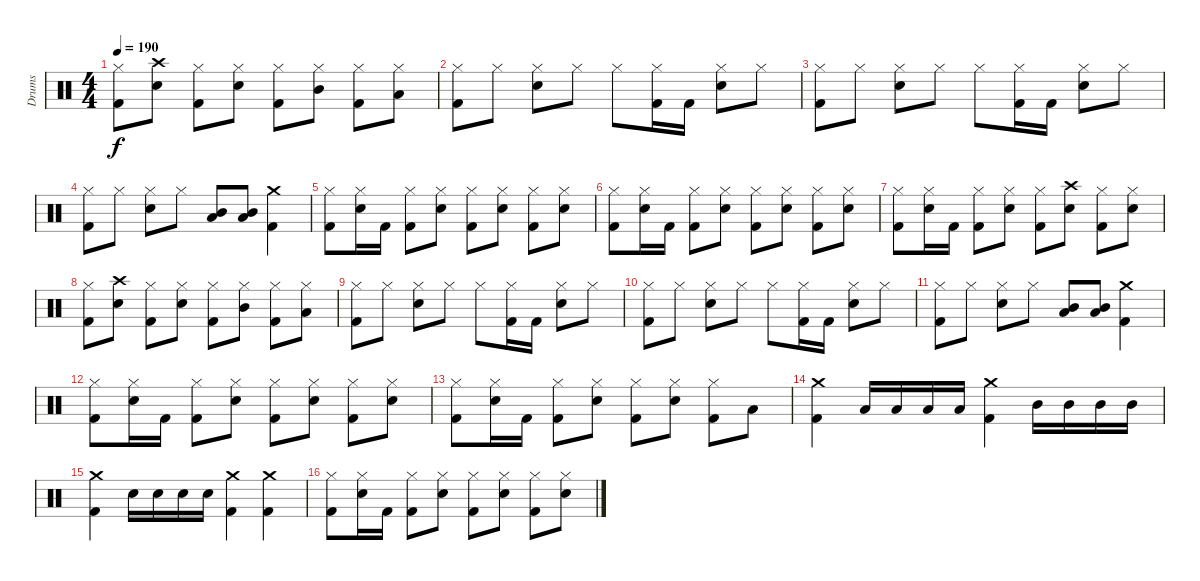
\track ("Drums" "Drums") {instrument percussion}
\staff {score}
\articulation defaults
\ts (4 4)
\tempo 190
\clef neutral
\ks c
("Kick (hit) 2" "Hi-Hat (closed)").8{dy f} ("Snare (hit) 2" "Crash high (hit)").8 ("Kick (hit) 2" "Hi-Hat (closed)").8 ("Snare (hit) 2" "Hi-Hat (closed)").8 ("Kick (hit) 2" "Hi-Hat (closed)").8 ("Hi-Hat (closed)" "Mid Tom (hit)").8 ("Kick (hit) 2" "Hi-Hat (closed)").8 ("Hi-Hat (closed)" "Low Tom (hit)").8 |
("Kick (hit) 2" "Hi-Hat (closed)").8 "Hi-Hat (closed)".8 ("Snare (hit) 2" "Hi-Hat (closed)").8 "Hi-Hat (closed)".8 "Hi-Hat (closed)".8 ("Kick (hit) 2" "Hi-Hat (closed)").16 "Kick (hit) 2".16 ("Snare (hit) 2" "Hi-Hat (closed)").8 "Hi-Hat (closed)".8 |
("Kick (hit) 2" "Hi-Hat (closed)").8 "Hi-Hat (closed)".8 ("Snare (hit) 2" "Hi-Hat (closed)").8 "Hi-Hat (closed)".8 "Hi-Hat (closed)".8 ("Kick (hit) 2" "Hi-Hat (closed)").16 "Kick (hit) 2".16 ("Snare (hit) 2" "Hi-Hat (closed)").8 "Hi-Hat (closed)".8 |
("Kick (hit) 2" "Hi-Hat (closed)").8 "Hi-Hat (closed)".8 ("Snare (hit) 2" "Hi-Hat (closed)").8 "Hi-Hat (closed)".8 ("Mid Tom (hit)" "Low Tom (hit)").8{bd 240} ("Mid Tom (hit)" "Low Tom (hit)").8{bu 240} ("Crash medium (hit)" "Kick (hit) 2").4 |
("Kick (hit) 2" "Hi-Hat (closed)").8 ("Snare (hit) 2" "Hi-Hat (closed)").16 "Kick (hit) 2".16 ("Kick (hit) 2" "Hi-Hat (closed)").8 ("Snare (hit) 2" "Hi-Hat (closed)").8 ("Kick (hit) 2" "Hi-Hat (closed)").8 ("Snare (hit) 2" "Hi-Hat (closed)").8 ("Kick (hit) 2" "Hi-Hat (closed)").8 ("Snare (hit) 2" "Hi-Hat (closed)").8 |
("Kick (hit) 2" "Hi-Hat (closed)").8 ("Snare (hit) 2" "Hi-Hat (closed)").16 "Kick (hit) 2".16 ("Kick (hit) 2" "Hi-Hat (closed)").8 ("Snare (hit) 2" "Hi-Hat (closed)").8 ("Kick (hit) 2" "Hi-Hat (closed)").8 ("Snare (hit) 2" "Hi-Hat (closed)").8 ("Kick (hit) 2" "Hi-Hat (closed)").8 ("Snare (hit) 2" "Hi-Hat (closed)").8 |
("Kick (hit) 2" "Hi-Hat (closed)").8 ("Snare (hit) 2" "Hi-Hat (closed)").16 "Kick (hit) 2".16 ("Kick (hit) 2" "Hi-Hat (closed)").8 ("Snare (hit) 2" "Hi-Hat (closed)").8 ("Kick (hit) 2" "Hi-Hat (closed)").8 ("Snare (hit) 2" "Crash high (hit)").8 ("Kick (hit) 2" "Hi-Hat (closed)").8 ("Snare (hit) 2" "Hi-Hat (closed)").8 |
("Kick (hit) 2" "Hi-Hat (closed)").8 ("Snare (hit) 2" "Crash high (hit)").8 ("Kick (hit) 2" "Hi-Hat (closed)").8 ("Snare (hit) 2" "Hi-Hat (closed)").8 ("Kick (hit) 2" "Hi-Hat (closed)").8 ("Hi-Hat (closed)" "Mid Tom (hit)").8 ("Kick (hit) 2" "Hi-Hat (closed)").8 ("Hi-Hat (closed)" "Low Tom (hit)").8 |
("Kick (hit) 2" "Hi-Hat (closed)").8 "Hi-Hat (closed)".8 ("Snare (hit) 2" "Hi-Hat (closed)").8 "Hi-Hat (closed)".8 "Hi-Hat (closed)".8 ("Kick (hit) 2" "Hi-Hat (closed)").16 "Kick (hit) 2".16 ("Snare (hit) 2" "Hi-Hat (closed)").8 "Hi-Hat (closed)".8 |
("Kick (hit) 2" "Hi-Hat (closed)").8 "Hi-Hat (closed)".8 ("Snare (hit) 2" "Hi-Hat (closed)").8 "Hi-Hat (closed)".8 "Hi-Hat (closed)".8 ("Kick (hit) 2" "Hi-Hat (closed)").16 "Kick (hit) 2".16 ("Snare (hit) 2" "Hi-Hat (closed)").8 "Hi-Hat (closed)".8 |
("Kick (hit) 2" "Hi-Hat (closed)").8 "Hi-Hat (closed)".8 ("Snare (hit) 2" "Hi-Hat (closed)").8 "Hi-Hat (closed)".8 ("Mid Tom (hit)" "Low Tom (hit)").8{bd 240} ("Mid Tom (hit)" "Low Tom (hit)").8{bu 240} ("Crash medium (hit)" "Kick (hit) 2").4 |
("Kick (hit) 2" "Hi-Hat (closed)").8 ("Snare (hit) 2" "Hi-Hat (closed)").16 "Kick (hit) 2".16 ("Kick (hit) 2" "Hi-Hat (closed)").8 ("Snare (hit) 2" "Hi-Hat (closed)").8 ("Kick (hit) 2" "Hi-Hat (closed)").8 ("Snare (hit) 2" "Hi-Hat (closed)").8 ("Kick (hit) 2" "Hi-Hat (closed)").8 ("Snare (hit) 2" "Hi-Hat (closed)").8 |
("Kick (hit) 2" "Hi-Hat (closed)").8 ("Snare (hit) 2" "Hi-Hat (closed)").16 "Kick (hit) 2".16 ("Kick (hit) 2" "Hi-Hat (closed)").8 ("Snare (hit) 2" "Hi-Hat (closed)").8 ("Kick (hit) 2" "Hi-Hat (closed)").8 ("Snare (hit) 2" "Hi-Hat (closed)").8 ("Kick (hit) 2" "Hi-Hat (closed)").8 "Low Tom (hit)".8 |
("Crash medium (hit)" "Kick (hit) 2").4 "Low Tom (hit)".16 "Low Tom (hit)".16 "Low Tom (hit)".16 "Low Tom (hit)".16 ("Crash medium (hit)" "Kick (hit) 2").4 "Mid Tom (hit)".16 "Mid Tom (hit)".16 "Mid Tom (hit)".16 "Mid Tom (hit)".16 |
("Crash medium (hit)" "Kick (hit) 2").4 "Snare (hit) 2".16 "Snare (hit) 2".16 "Snare (hit) 2".16 "Snare (hit) 2".16 ("Crash medium (hit)" "Kick (hit) 2").4 ("Crash medium (hit)" "Kick (hit) 2").4 |
("Kick (hit) 2" "Hi-Hat (closed)").8 ("Snare (hit) 2" "Hi-Hat (closed)").16 "Kick (hit) 2".16 ("Kick (hit) 2" "Hi-Hat (closed)").8 ("Snare (hit) 2" "Hi-Hat (closed)").8 ("Kick (hit) 2" "Hi-Hat (closed)").8 ("Snare (hit) 2" "Hi-Hat (closed)").8 ("Kick (hit) 2" "Hi-Hat (closed)").8 ("Snare (hit) 2" "Hi-Hat (closed)").8
